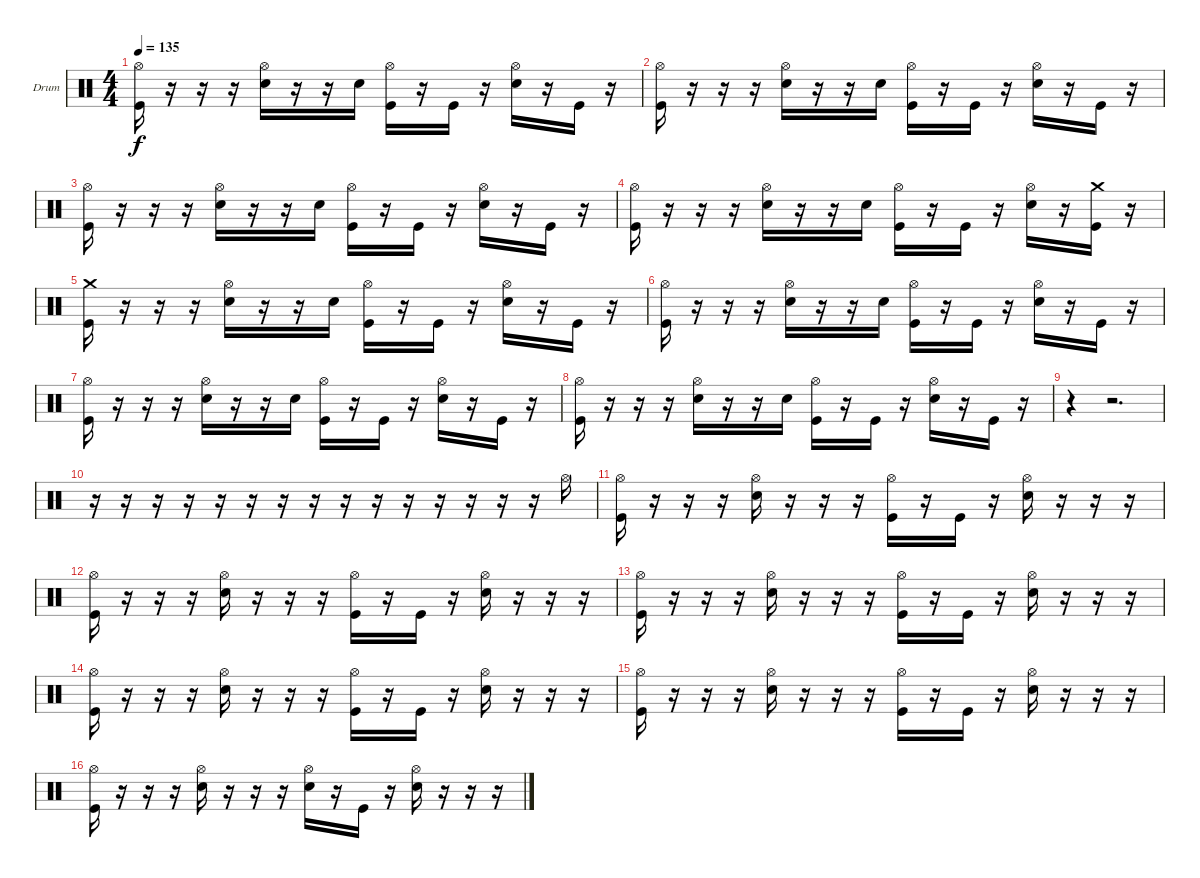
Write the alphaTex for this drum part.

\defaultSystemsLayout 4
\bracketExtendMode groupsimilarinstruments
\firstSystemTrackNameOrientation horizontal
\otherSystemsTrackNameOrientation horizontal
\track ("Drum" "Drum") {instrument percussion}
\staff {score}
\articulation defaults
\ts (4 4)
\tempo 135
\clef neutral
\scale
0.472222
\ks c
("Hi-Hat (open)" "Kick (hit)").16{dy f} r.16 r.16 r.16 ("Hi-Hat (open)" "Snare (hit) 2").16 r.16 r.16 "Snare (hit) 2".16 ("Hi-Hat (open)" "Kick (hit)").16 r.16 "Kick (hit)".16 r.16 ("Hi-Hat (open)" "Snare (hit) 2").16 r.16 "Kick (hit)".16 r.16 |
\scale
0.263889 ("Hi-Hat (open)" "Kick (hit)").16 r.16 r.16 r.16 ("Hi-Hat (open)" "Snare (hit) 2").16 r.16 r.16 "Snare (hit) 2".16 ("Hi-Hat (open)" "Kick (hit)").16 r.16 "Kick (hit)".16 r.16 ("Hi-Hat (open)" "Snare (hit) 2").16 r.16 "Kick (hit)".16 r.16 |
\scale
0.263889 ("Hi-Hat (open)" "Kick (hit)").16 r.16 r.16 r.16 ("Hi-Hat (open)" "Snare (hit) 2").16 r.16 r.16 "Snare (hit) 2".16 ("Hi-Hat (open)" "Kick (hit)").16 r.16 "Kick (hit)".16 r.16 ("Hi-Hat (open)" "Snare (hit) 2").16 r.16 "Kick (hit)".16 r.16 |
\scale
0.333333 ("Hi-Hat (open)" "Kick (hit)").16 r.16 r.16 r.16 ("Hi-Hat (open)" "Snare (hit) 2").16 r.16 r.16 "Snare (hit) 2".16 ("Hi-Hat (open)" "Kick (hit)").16 r.16 "Kick (hit)".16 r.16 ("Hi-Hat (open)" "Snare (hit) 2").16 r.16 ("Crash medium (hit)" "Kick (hit)").16 r.16 |
\scale
0.333333 ("Crash medium (hit)" "Kick (hit)").16 r.16 r.16 r.16 ("Hi-Hat (open)" "Snare (hit) 2").16 r.16 r.16 "Snare (hit) 2".16 ("Hi-Hat (open)" "Kick (hit)").16 r.16 "Kick (hit)".16 r.16 ("Hi-Hat (open)" "Snare (hit) 2").16 r.16 "Kick (hit)".16 r.16 |
\scale
0.333333 ("Hi-Hat (open)" "Kick (hit)").16 r.16 r.16 r.16 ("Hi-Hat (open)" "Snare (hit) 2").16 r.16 r.16 "Snare (hit) 2".16 ("Hi-Hat (open)" "Kick (hit)").16 r.16 "Kick (hit)".16 r.16 ("Hi-Hat (open)" "Snare (hit) 2").16 r.16 "Kick (hit)".16 r.16 |
\scale
0.333333 ("Hi-Hat (open)" "Kick (hit)").16 r.16 r.16 r.16 ("Hi-Hat (open)" "Snare (hit) 2").16 r.16 r.16 "Snare (hit) 2".16 ("Hi-Hat (open)" "Kick (hit)").16 r.16 "Kick (hit)".16 r.16 ("Hi-Hat (open)" "Snare (hit) 2").16 r.16 "Kick (hit)".16 r.16 |
\scale
0.333333 ("Hi-Hat (open)" "Kick (hit)").16 r.16 r.16 r.16 ("Hi-Hat (open)" "Snare (hit) 2").16 r.16 r.16 "Snare (hit) 2".16 ("Hi-Hat (open)" "Kick (hit)").16 r.16 "Kick (hit)".16 r.16 ("Hi-Hat (open)" "Snare (hit) 2").16 r.16 "Kick (hit)".16 r.16 |
r.4 r.2{d} |
r.16 r.16 r.16 r.16 r.16 r.16 r.16 r.16 r.16 r.16 r.16 r.16 r.16 r.16 r.16 "Hi-Hat (open)".16 |
("Hi-Hat (open)" "Kick (hit)").16 r.16 r.16 r.16 ("Hi-Hat (open)" "Snare (hit) 2").16 r.16 r.16 r.16 ("Hi-Hat (open)" "Kick (hit)").16 r.16 "Kick (hit)".16 r.16 ("Hi-Hat (open)" "Snare (hit) 2").16 r.16 r.16 r.16 |
("Hi-Hat (open)" "Kick (hit)").16 r.16 r.16 r.16 ("Hi-Hat (open)" "Snare (hit) 2").16 r.16 r.16 r.16 ("Hi-Hat (open)" "Kick (hit)").16 r.16 "Kick (hit)".16 r.16 ("Hi-Hat (open)" "Snare (hit) 2").16 r.16 r.16 r.16 |
\scale
0.333333 ("Hi-Hat (open)" "Kick (hit)").16 r.16 r.16 r.16 ("Hi-Hat (open)" "Snare (hit) 2").16 r.16 r.16 r.16 ("Hi-Hat (open)" "Kick (hit)").16 r.16 "Kick (hit)".16 r.16 ("Hi-Hat (open)" "Snare (hit) 2").16 r.16 r.16 r.16 |
("Hi-Hat (open)" "Kick (hit)").16 r.16 r.16 r.16 ("Hi-Hat (open)" "Snare (hit) 2").16 r.16 r.16 r.16 ("Hi-Hat (open)" "Kick (hit)").16 r.16 "Kick (hit)".16 r.16 ("Hi-Hat (open)" "Snare (hit) 2").16 r.16 r.16 r.16 |
("Hi-Hat (open)" "Kick (hit)").16 r.16 r.16 r.16 ("Hi-Hat (open)" "Snare (hit) 2").16 r.16 r.16 r.16 ("Hi-Hat (open)" "Kick (hit)").16 r.16 "Kick (hit)".16 r.16 ("Hi-Hat (open)" "Snare (hit) 2").16 r.16 r.16 r.16 |
("Hi-Hat (open)" "Kick (hit)").16 r.16 r.16 r.16 ("Hi-Hat (open)" "Snare (hit) 2").16 r.16 r.16 r.16 ("Hi-Hat (open)" "Snare (hit) 2").16 r.16 "Kick (hit)".16 r.16 ("Hi-Hat (open)" "Snare (hit) 2").16 r.16 r.16 r.16
